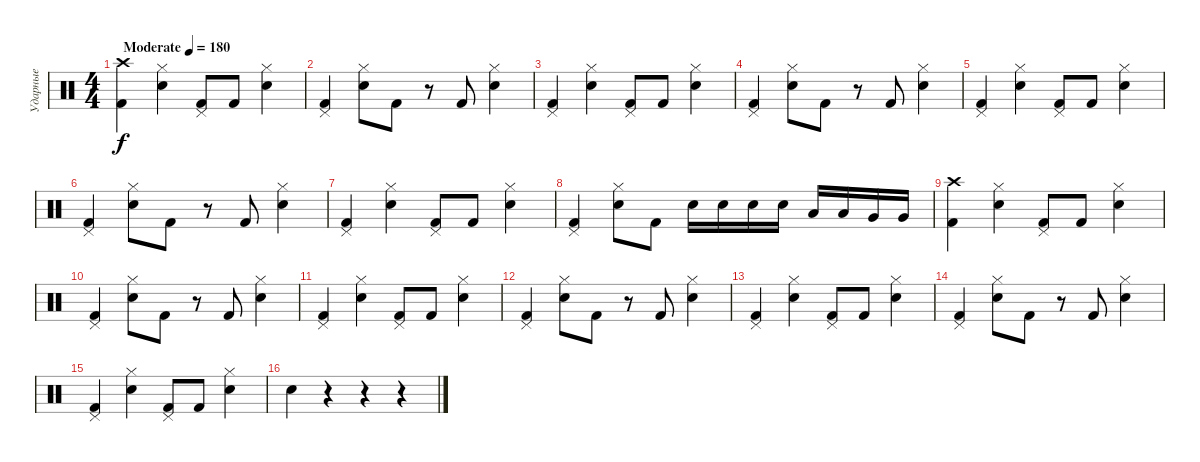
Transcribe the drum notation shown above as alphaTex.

\track ("Ударные" "Ударные") {instrument percussion}
\staff {score}
\articulation defaults
\ts (4 4)
\tempo (180 "Moderate")
\clef neutral
\ks c
("Crash high (hit)" "Kick (hit) 2").4{dy f} ("Hi-Hat (closed)" "Snare (hit) 2").4 ("Pedal Hi-Hat (hit)" "Kick (hit) 2").8 "Kick (hit) 2".8 ("Hi-Hat (closed)" "Snare (hit) 2").4 |
("Pedal Hi-Hat (hit)" "Kick (hit) 2").4 ("Hi-Hat (closed)" "Snare (hit) 2").8 "Kick (hit) 2".8 r.8 "Kick (hit) 2".8 ("Hi-Hat (closed)" "Snare (hit) 2").4 |
("Pedal Hi-Hat (hit)" "Kick (hit) 2").4 ("Hi-Hat (closed)" "Snare (hit) 2").4 ("Pedal Hi-Hat (hit)" "Kick (hit) 2").8 "Kick (hit) 2".8 ("Hi-Hat (closed)" "Snare (hit) 2").4 |
("Pedal Hi-Hat (hit)" "Kick (hit) 2").4 ("Hi-Hat (closed)" "Snare (hit) 2").8 "Kick (hit) 2".8 r.8 "Kick (hit) 2".8 ("Hi-Hat (closed)" "Snare (hit) 2").4 |
("Pedal Hi-Hat (hit)" "Kick (hit) 2").4 ("Hi-Hat (closed)" "Snare (hit) 2").4 ("Pedal Hi-Hat (hit)" "Kick (hit) 2").8 "Kick (hit) 2".8 ("Hi-Hat (closed)" "Snare (hit) 2").4 |
("Pedal Hi-Hat (hit)" "Kick (hit) 2").4 ("Hi-Hat (closed)" "Snare (hit) 2").8 "Kick (hit) 2".8 r.8 "Kick (hit) 2".8 ("Hi-Hat (closed)" "Snare (hit) 2").4 |
("Pedal Hi-Hat (hit)" "Kick (hit) 2").4 ("Hi-Hat (closed)" "Snare (hit) 2").4 ("Pedal Hi-Hat (hit)" "Kick (hit) 2").8 "Kick (hit) 2".8 ("Hi-Hat (closed)" "Snare (hit) 2").4 |
("Pedal Hi-Hat (hit)" "Kick (hit) 2").4 ("Hi-Hat (closed)" "Snare (hit) 2").8 "Kick (hit) 2".8 "Snare (hit) 2".16 "Snare (hit) 2".16 "Snare (hit) 2".16 "Snare (hit) 2".16 "Low Tom (hit)".16 "Low Tom (hit)".16 "Very Low Tom (hit)".16 "Very Low Tom (hit)".16 |
("Crash high (hit)" "Kick (hit) 2").4 ("Hi-Hat (closed)" "Snare (hit) 2").4 ("Pedal Hi-Hat (hit)" "Kick (hit) 2").8 "Kick (hit) 2".8 ("Hi-Hat (closed)" "Snare (hit) 2").4 |
("Pedal Hi-Hat (hit)" "Kick (hit) 2").4 ("Hi-Hat (closed)" "Snare (hit) 2").8 "Kick (hit) 2".8 r.8 "Kick (hit) 2".8 ("Hi-Hat (closed)" "Snare (hit) 2").4 |
("Pedal Hi-Hat (hit)" "Kick (hit) 2").4 ("Hi-Hat (closed)" "Snare (hit) 2").4 ("Pedal Hi-Hat (hit)" "Kick (hit) 2").8 "Kick (hit) 2".8 ("Hi-Hat (closed)" "Snare (hit) 2").4 |
("Pedal Hi-Hat (hit)" "Kick (hit) 2").4 ("Hi-Hat (closed)" "Snare (hit) 2").8 "Kick (hit) 2".8 r.8 "Kick (hit) 2".8 ("Hi-Hat (closed)" "Snare (hit) 2").4 |
("Pedal Hi-Hat (hit)" "Kick (hit) 2").4 ("Hi-Hat (closed)" "Snare (hit) 2").4 ("Pedal Hi-Hat (hit)" "Kick (hit) 2").8 "Kick (hit) 2".8 ("Hi-Hat (closed)" "Snare (hit) 2").4 |
("Pedal Hi-Hat (hit)" "Kick (hit) 2").4 ("Hi-Hat (closed)" "Snare (hit) 2").8 "Kick (hit) 2".8 r.8 "Kick (hit) 2".8 ("Hi-Hat (closed)" "Snare (hit) 2").4 |
("Pedal Hi-Hat (hit)" "Kick (hit) 2").4 ("Hi-Hat (closed)" "Snare (hit) 2").4 ("Pedal Hi-Hat (hit)" "Kick (hit) 2").8 "Kick (hit) 2".8 ("Hi-Hat (closed)" "Snare (hit) 2").4 |
"Snare (hit) 2".4 r.4 r.4 r.4
